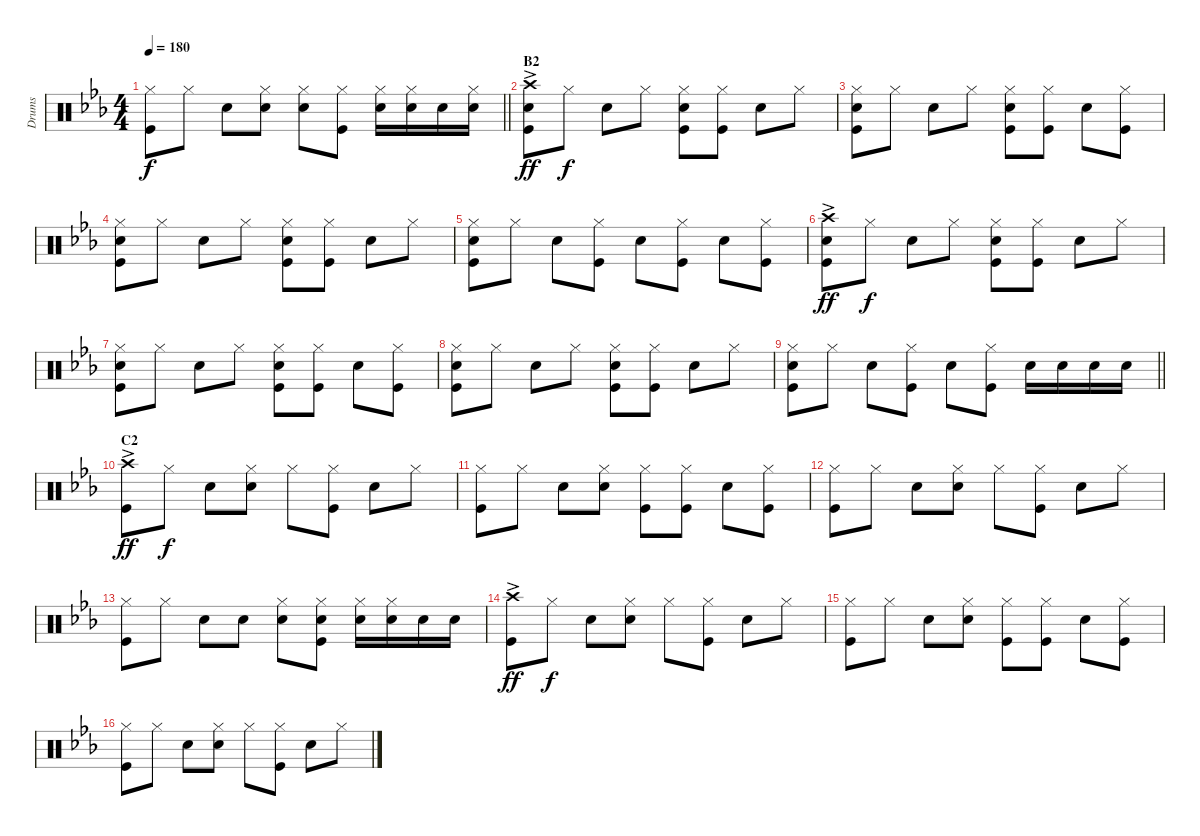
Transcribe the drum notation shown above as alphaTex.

\track ("Drums" "Drums") {instrument percussion}
\staff {score}
\articulation defaults
\ts (4 4)
\tempo 180
\clef neutral
\barLineRight lightlight
\ks cminor
("Hi-Hat (closed)" "Kick (hit)").8{dy f} "Hi-Hat (closed)".8 "Snare (hit) 2".8 ("Snare (hit) 2" "Hi-Hat (closed)").8 ("Hi-Hat (closed)" "Snare (hit) 2").8 ("Hi-Hat (closed)" "Kick (hit)").8 ("Snare (hit) 2" "Hi-Hat (closed)").16 ("Hi-Hat (closed)" "Snare (hit) 2").16 "Snare (hit) 2".16 ("Hi-Hat (closed)" "Snare (hit) 2").16 |
\section ("" "B2")
("Crash high (hit)"{ac} "Kick (hit)" "Snare (hit) 2").8{dy ff} "Hi-Hat (closed)".8{dy f} "Snare (hit) 2".8 "Hi-Hat (closed)".8 ("Hi-Hat (closed)" "Snare (hit) 2" "Kick (hit)").8 ("Kick (hit)" "Hi-Hat (closed)").8 "Snare (hit) 2".8 "Hi-Hat (closed)".8 |
("Snare (hit) 2" "Kick (hit)" "Hi-Hat (closed)").8 "Hi-Hat (closed)".8 "Snare (hit) 2".8 "Hi-Hat (closed)".8 ("Hi-Hat (closed)" "Snare (hit) 2" "Kick (hit)").8 ("Kick (hit)" "Hi-Hat (closed)").8 "Snare (hit) 2".8 ("Kick (hit)" "Hi-Hat (closed)").8 |
("Hi-Hat (closed)" "Kick (hit)" "Snare (hit) 2").8 "Hi-Hat (closed)".8 "Snare (hit) 2".8 "Hi-Hat (closed)".8 ("Hi-Hat (closed)" "Kick (hit)" "Snare (hit) 2").8 ("Kick (hit)" "Hi-Hat (closed)").8 "Snare (hit) 2".8 "Hi-Hat (closed)".8 |
("Hi-Hat (closed)" "Snare (hit) 2" "Kick (hit)").8 "Hi-Hat (closed)".8 "Snare (hit) 2".8 ("Hi-Hat (closed)" "Kick (hit)").8 "Snare (hit) 2".8 ("Hi-Hat (closed)" "Kick (hit)").8 "Snare (hit) 2".8 ("Kick (hit)" "Hi-Hat (closed)").8 |
("Crash high (hit)"{ac} "Kick (hit)" "Snare (hit) 2").8{dy ff} "Hi-Hat (closed)".8{dy f} "Snare (hit) 2".8 "Hi-Hat (closed)".8 ("Snare (hit) 2" "Kick (hit)" "Hi-Hat (closed)").8 ("Hi-Hat (closed)" "Kick (hit)").8 "Snare (hit) 2".8 "Hi-Hat (closed)".8 |
("Hi-Hat (closed)" "Snare (hit) 2" "Kick (hit)").8 "Hi-Hat (closed)".8 "Snare (hit) 2".8 "Hi-Hat (closed)".8 ("Hi-Hat (closed)" "Kick (hit)" "Snare (hit) 2").8 ("Kick (hit)" "Hi-Hat (closed)").8 "Snare (hit) 2".8 ("Hi-Hat (closed)" "Kick (hit)").8 |
("Hi-Hat (closed)" "Kick (hit)" "Snare (hit) 2").8 "Hi-Hat (closed)".8 "Snare (hit) 2".8 "Hi-Hat (closed)".8 ("Hi-Hat (closed)" "Kick (hit)" "Snare (hit) 2").8 ("Hi-Hat (closed)" "Kick (hit)").8 "Snare (hit) 2".8 "Hi-Hat (closed)".8 |
\barLineRight lightlight
("Hi-Hat (closed)" "Kick (hit)" "Snare (hit) 2").8 "Hi-Hat (closed)".8 "Snare (hit) 2".8 ("Hi-Hat (closed)" "Kick (hit)").8 "Snare (hit) 2".8 ("Kick (hit)" "Hi-Hat (closed)").8 "Snare (hit) 2".16 "Snare (hit) 2".16 "Snare (hit) 2".16 "Snare (hit) 2".16 |
\section ("" "C2")
("Crash high (hit)"{ac} "Kick (hit)").8{dy ff} "Hi-Hat (closed)".8{dy f} "Snare (hit) 2".8 ("Snare (hit) 2" "Hi-Hat (closed)").8 "Hi-Hat (closed)".8 ("Kick (hit)" "Hi-Hat (closed)").8 "Snare (hit) 2".8 "Hi-Hat (closed)".8 |
("Hi-Hat (closed)" "Kick (hit)").8 "Hi-Hat (closed)".8 "Snare (hit) 2".8 ("Snare (hit) 2" "Hi-Hat (closed)").8 ("Hi-Hat (closed)" "Kick (hit)").8 ("Kick (hit)" "Hi-Hat (closed)").8 "Snare (hit) 2".8 ("Kick (hit)" "Hi-Hat (closed)").8 |
("Hi-Hat (closed)" "Kick (hit)").8 "Hi-Hat (closed)".8 "Snare (hit) 2".8 ("Snare (hit) 2" "Hi-Hat (closed)").8 "Hi-Hat (closed)".8 ("Hi-Hat (closed)" "Kick (hit)").8 "Snare (hit) 2".8 "Hi-Hat (closed)".8 |
("Hi-Hat (closed)" "Kick (hit)").8 "Hi-Hat (closed)".8 "Snare (hit) 2".8 "Snare (hit) 2".8 ("Snare (hit) 2" "Hi-Hat (closed)").8 ("Snare (hit) 2" "Kick (hit)" "Hi-Hat (closed)").8 ("Hi-Hat (closed)" "Snare (hit) 2").16 ("Snare (hit) 2" "Hi-Hat (closed)").16 "Snare (hit) 2".16 "Snare (hit) 2".16 |
("Crash high (hit)"{ac} "Kick (hit)").8{dy ff} "Hi-Hat (closed)".8{dy f} "Snare (hit) 2".8 ("Snare (hit) 2" "Hi-Hat (closed)").8 "Hi-Hat (closed)".8 ("Hi-Hat (closed)" "Kick (hit)").8 "Snare (hit) 2".8 "Hi-Hat (closed)".8 |
("Hi-Hat (closed)" "Kick (hit)").8 "Hi-Hat (closed)".8 "Snare (hit) 2".8 ("Snare (hit) 2" "Hi-Hat (closed)").8 ("Hi-Hat (closed)" "Kick (hit)").8 ("Kick (hit)" "Hi-Hat (closed)").8 "Snare (hit) 2".8 ("Kick (hit)" "Hi-Hat (closed)").8 |
("Hi-Hat (closed)" "Kick (hit)").8 "Hi-Hat (closed)".8 "Snare (hit) 2".8 ("Snare (hit) 2" "Hi-Hat (closed)").8 "Hi-Hat (closed)".8 ("Hi-Hat (closed)" "Kick (hit)").8 "Snare (hit) 2".8 "Hi-Hat (closed)".8
